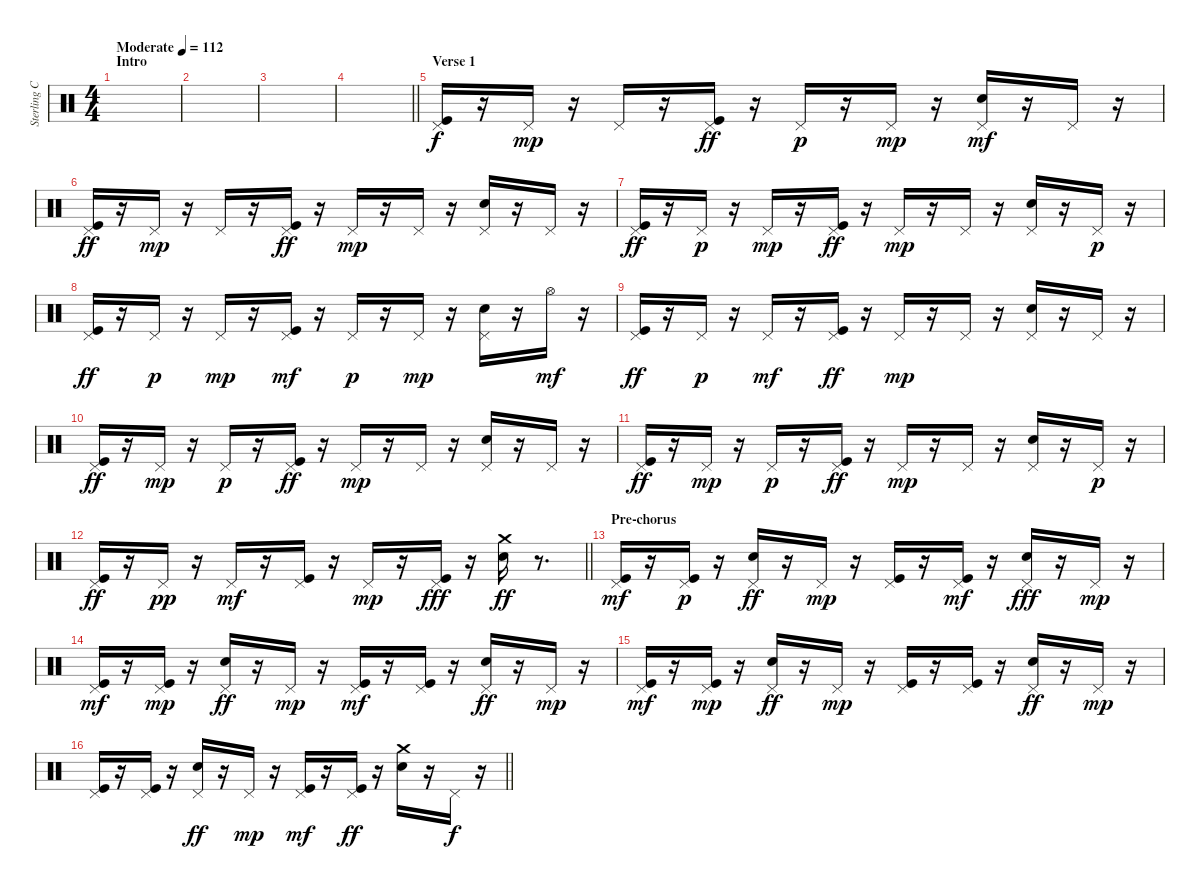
\track ("Sterling Campbell" "Sterling C") {instrument percussion}
\staff {score}
\articulation defaults
\ts (4 4)
\section ("" "Intro")
\tempo (112 "Moderate")
\clef neutral
\ks c
|
|
|
\barLineRight lightlight
|
\section ("" "Verse 1")
("Kick (hit)" "Pedal Hi-Hat (hit)").16 r.16 "Pedal Hi-Hat (hit)".16{dy mp} r.16 "Pedal Hi-Hat (hit)".16 r.16 ("Kick (hit)" "Pedal Hi-Hat (hit)").16{dy ff} r.16 "Pedal Hi-Hat (hit)".16{dy p} r.16 "Pedal Hi-Hat (hit)".16{dy mp} r.16 ("Electric Snare (hit)" "Pedal Hi-Hat (hit)").16{dy mf} r.16 "Pedal Hi-Hat (hit)".16 r.16 |
("Kick (hit)" "Pedal Hi-Hat (hit)").16{dy ff} r.16 "Pedal Hi-Hat (hit)".16{dy mp} r.16 "Pedal Hi-Hat (hit)".16 r.16 ("Kick (hit)" "Pedal Hi-Hat (hit)").16{dy ff} r.16 "Pedal Hi-Hat (hit)".16{dy mp} r.16 "Pedal Hi-Hat (hit)".16 r.16 ("Electric Snare (hit)" "Pedal Hi-Hat (hit)").16 r.16 "Pedal Hi-Hat (hit)".16 r.16 |
("Kick (hit)" "Pedal Hi-Hat (hit)").16{dy ff} r.16 "Pedal Hi-Hat (hit)".16{dy p} r.16 "Pedal Hi-Hat (hit)".16{dy mp} r.16 ("Kick (hit)" "Pedal Hi-Hat (hit)").16{dy ff} r.16 "Pedal Hi-Hat (hit)".16{dy mp} r.16 "Pedal Hi-Hat (hit)".16 r.16 ("Electric Snare (hit)" "Pedal Hi-Hat (hit)").16 r.16 "Pedal Hi-Hat (hit)".16{dy p} r.16 |
("Kick (hit)" "Pedal Hi-Hat (hit)").16{dy ff} r.16 "Pedal Hi-Hat (hit)".16{dy p} r.16 "Pedal Hi-Hat (hit)".16{dy mp} r.16 ("Kick (hit)" "Pedal Hi-Hat (hit)").16{dy mf} r.16 "Pedal Hi-Hat (hit)".16{dy p} r.16 "Pedal Hi-Hat (hit)".16{dy mp} r.16 ("Electric Snare (hit)" "Pedal Hi-Hat (hit)").16 r.16 "Hi-Hat (open)".16{dy mf} r.16 |
("Kick (hit)" "Pedal Hi-Hat (hit)").16{dy ff} r.16 "Pedal Hi-Hat (hit)".16{dy p} r.16 "Pedal Hi-Hat (hit)".16{dy mf} r.16 ("Kick (hit)" "Pedal Hi-Hat (hit)").16{dy ff} r.16 "Pedal Hi-Hat (hit)".16{dy mp} r.16 "Pedal Hi-Hat (hit)".16 r.16 ("Electric Snare (hit)" "Pedal Hi-Hat (hit)").16 r.16 "Pedal Hi-Hat (hit)".16 r.16 |
("Kick (hit)" "Pedal Hi-Hat (hit)").16{dy ff} r.16 "Pedal Hi-Hat (hit)".16{dy mp} r.16 "Pedal Hi-Hat (hit)".16{dy p} r.16 ("Kick (hit)" "Pedal Hi-Hat (hit)").16{dy ff} r.16 "Pedal Hi-Hat (hit)".16{dy mp} r.16 "Pedal Hi-Hat (hit)".16 r.16 ("Electric Snare (hit)" "Pedal Hi-Hat (hit)").16 r.16 "Pedal Hi-Hat (hit)".16 r.16 |
("Kick (hit)" "Pedal Hi-Hat (hit)").16{dy ff} r.16 "Pedal Hi-Hat (hit)".16{dy mp} r.16 "Pedal Hi-Hat (hit)".16{dy p} r.16 ("Kick (hit)" "Pedal Hi-Hat (hit)").16{dy ff} r.16 "Pedal Hi-Hat (hit)".16{dy mp} r.16 "Pedal Hi-Hat (hit)".16 r.16 ("Electric Snare (hit)" "Pedal Hi-Hat (hit)").16 r.16 "Pedal Hi-Hat (hit)".16{dy p} r.16 |
\barLineRight lightlight
("Kick (hit)" "Pedal Hi-Hat (hit)").16{dy ff} r.16 "Pedal Hi-Hat (hit)".16{dy pp} r.16 "Pedal Hi-Hat (hit)".16{dy mf} r.16 ("Kick (hit)" "Pedal Hi-Hat (hit)").16 r.16 "Pedal Hi-Hat (hit)".16{dy mp} r.16 ("Kick (hit)" "Pedal Hi-Hat (hit)").16{dy fff} r.16 ("Electric Snare (hit)" "Crash medium (hit)").16{dy ff} r.8{d} |
\section ("" "Pre-chorus")
("Kick (hit)" "Pedal Hi-Hat (hit)").16{dy mf} r.16 ("Kick (hit)" "Pedal Hi-Hat (hit)").16{dy p} r.16 ("Electric Snare (hit)" "Pedal Hi-Hat (hit)").16{dy ff} r.16 "Pedal Hi-Hat (hit)".16{dy mp} r.16 ("Kick (hit)" "Pedal Hi-Hat (hit)").16 r.16 ("Kick (hit)" "Pedal Hi-Hat (hit)").16{dy mf} r.16 ("Electric Snare (hit)" "Pedal Hi-Hat (hit)").16{dy fff} r.16 "Pedal Hi-Hat (hit)".16{dy mp} r.16 |
("Kick (hit)" "Pedal Hi-Hat (hit)").16{dy mf} r.16 ("Kick (hit)" "Pedal Hi-Hat (hit)").16{dy mp} r.16 ("Electric Snare (hit)" "Pedal Hi-Hat (hit)").16{dy ff} r.16 "Pedal Hi-Hat (hit)".16{dy mp} r.16 ("Kick (hit)" "Pedal Hi-Hat (hit)").16{dy mf} r.16 ("Kick (hit)" "Pedal Hi-Hat (hit)").16 r.16 ("Electric Snare (hit)" "Pedal Hi-Hat (hit)").16{dy ff} r.16 "Pedal Hi-Hat (hit)".16{dy mp} r.16 |
("Kick (hit)" "Pedal Hi-Hat (hit)").16{dy mf} r.16 ("Kick (hit)" "Pedal Hi-Hat (hit)").16{dy mp} r.16 ("Electric Snare (hit)" "Pedal Hi-Hat (hit)").16{dy ff} r.16 "Pedal Hi-Hat (hit)".16{dy mp} r.16 ("Kick (hit)" "Pedal Hi-Hat (hit)").16 r.16 ("Kick (hit)" "Pedal Hi-Hat (hit)").16 r.16 ("Electric Snare (hit)" "Pedal Hi-Hat (hit)").16{dy ff} r.16 "Pedal Hi-Hat (hit)".16{dy mp} r.16 |
\barLineRight lightlight
("Kick (hit)" "Pedal Hi-Hat (hit)").16 r.16 ("Kick (hit)" "Pedal Hi-Hat (hit)").16 r.16 ("Electric Snare (hit)" "Pedal Hi-Hat (hit)").16{dy ff} r.16 "Pedal Hi-Hat (hit)".16{dy mp} r.16 ("Kick (hit)" "Pedal Hi-Hat (hit)").16{dy mf} r.16 ("Kick (hit)" "Pedal Hi-Hat (hit)").16{dy ff} r.16 ("Electric Snare (hit)" "Crash medium (hit)").16 r.16 "Pedal Hi-Hat (hit)".16{dy f} r.16
